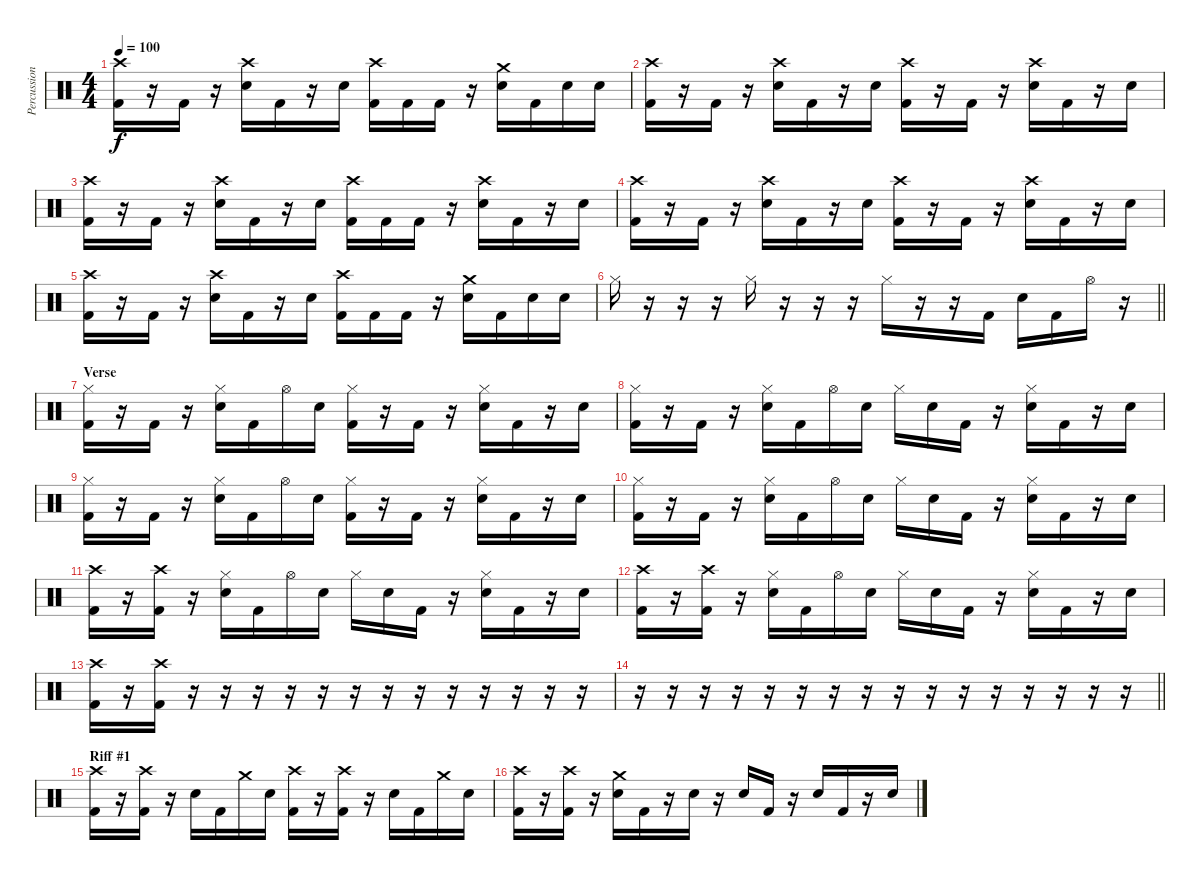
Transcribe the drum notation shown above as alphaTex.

\track ("Percussion" "Percussion") {instrument percussion}
\staff {score}
\articulation defaults
\ts (4 4)
\tempo 100
\clef neutral
\ks c
("Crash high (hit)" "Kick (hit) 2").16{dy f} r.16 "Kick (hit) 2".16 r.16 ("Crash high (hit)" "Electric Snare (hit)").16 "Kick (hit) 2".16 r.16 "Electric Snare (hit)".16 ("Crash high (hit)" "Kick (hit) 2").16 "Kick (hit) 2".16 "Kick (hit) 2".16 r.16 ("Crash medium (hit)" "Electric Snare (hit)").16 "Kick (hit) 2".16 "Electric Snare (hit)".16 "Electric Snare (hit)".16 |
("Crash high (hit)" "Kick (hit) 2").16 r.16 "Kick (hit) 2".16 r.16 ("Crash high (hit)" "Electric Snare (hit)").16 "Kick (hit) 2".16 r.16 "Electric Snare (hit)".16 ("Crash high (hit)" "Kick (hit) 2").16 r.16 "Kick (hit) 2".16 r.16 ("Crash high (hit)" "Electric Snare (hit)").16 "Kick (hit) 2".16 r.16 "Electric Snare (hit)".16 |
("Crash high (hit)" "Kick (hit) 2").16 r.16 "Kick (hit) 2".16 r.16 ("Crash high (hit)" "Electric Snare (hit)").16 "Kick (hit) 2".16 r.16 "Electric Snare (hit)".16 ("Crash high (hit)" "Kick (hit) 2").16 "Kick (hit) 2".16 "Kick (hit) 2".16 r.16 ("Crash high (hit)" "Electric Snare (hit)").16 "Kick (hit) 2".16 r.16 "Electric Snare (hit)".16 |
("Crash high (hit)" "Kick (hit) 2").16 r.16 "Kick (hit) 2".16 r.16 ("Crash high (hit)" "Electric Snare (hit)").16 "Kick (hit) 2".16 r.16 "Electric Snare (hit)".16 ("Crash high (hit)" "Kick (hit) 2").16 r.16 "Kick (hit) 2".16 r.16 ("Crash high (hit)" "Electric Snare (hit)").16 "Kick (hit) 2".16 r.16 "Electric Snare (hit)".16 |
("Crash high (hit)" "Kick (hit) 2").16 r.16 "Kick (hit) 2".16 r.16 ("Crash high (hit)" "Electric Snare (hit)").16 "Kick (hit) 2".16 r.16 "Electric Snare (hit)".16 ("Crash high (hit)" "Kick (hit) 2").16 "Kick (hit) 2".16 "Kick (hit) 2".16 r.16 ("Crash medium (hit)" "Electric Snare (hit)").16 "Kick (hit) 2".16 "Electric Snare (hit)".16 "Electric Snare (hit)".16 |
\barLineRight lightlight "Hi-Hat (closed)".16
r.16 r.16 r.16 "Hi-Hat (closed)".16 r.16 r.16 r.16 "Hi-Hat (closed)".16 r.16 r.16 "Kick (hit) 2".16 "Electric Snare (hit)".16 "Kick (hit) 2".16 "Hi-Hat (open)".16 r.16 |
\section ("" "Verse")
("Hi-Hat (closed)" "Kick (hit) 2").16 r.16 "Kick (hit) 2".16 r.16 ("Hi-Hat (closed)" "Electric Snare (hit)").16 "Kick (hit) 2".16 "Hi-Hat (open)".16 "Electric Snare (hit)".16 ("Hi-Hat (closed)" "Kick (hit) 2").16 r.16 "Kick (hit) 2".16 r.16 ("Hi-Hat (closed)" "Electric Snare (hit)").16 "Kick (hit) 2".16 r.16 "Electric Snare (hit)".16 |
("Hi-Hat (closed)" "Kick (hit) 2").16 r.16 "Kick (hit) 2".16 r.16 ("Hi-Hat (closed)" "Electric Snare (hit)").16 "Kick (hit) 2".16 "Hi-Hat (open)".16 "Electric Snare (hit)".16 "Hi-Hat (closed)".16 "Electric Snare (hit)".16 "Kick (hit) 2".16 r.16 ("Hi-Hat (closed)" "Electric Snare (hit)").16 "Kick (hit) 2".16 r.16 "Electric Snare (hit)".16 |
("Hi-Hat (closed)" "Kick (hit) 2").16 r.16 "Kick (hit) 2".16 r.16 ("Hi-Hat (closed)" "Electric Snare (hit)").16 "Kick (hit) 2".16 "Hi-Hat (open)".16 "Electric Snare (hit)".16 ("Hi-Hat (closed)" "Kick (hit) 2").16 r.16 "Kick (hit) 2".16 r.16 ("Hi-Hat (closed)" "Electric Snare (hit)").16 "Kick (hit) 2".16 r.16 "Electric Snare (hit)".16 |
("Hi-Hat (closed)" "Kick (hit) 2").16 r.16 "Kick (hit) 2".16 r.16 ("Hi-Hat (closed)" "Electric Snare (hit)").16 "Kick (hit) 2".16 "Hi-Hat (open)".16 "Electric Snare (hit)".16 "Hi-Hat (closed)".16 "Electric Snare (hit)".16 "Kick (hit) 2".16 r.16 ("Hi-Hat (closed)" "Electric Snare (hit)").16 "Kick (hit) 2".16 r.16 "Electric Snare (hit)".16 |
("Crash high (hit)" "Kick (hit) 2").16 r.16 ("Crash high (hit)" "Kick (hit) 2").16 r.16 ("Hi-Hat (closed)" "Electric Snare (hit)").16 "Kick (hit) 2".16 "Hi-Hat (open)".16 "Electric Snare (hit)".16 "Hi-Hat (closed)".16 "Electric Snare (hit)".16 "Kick (hit) 2".16 r.16 ("Hi-Hat (closed)" "Electric Snare (hit)").16 "Kick (hit) 2".16 r.16 "Electric Snare (hit)".16 |
("Crash high (hit)" "Kick (hit) 2").16 r.16 ("Crash high (hit)" "Kick (hit) 2").16 r.16 ("Hi-Hat (closed)" "Electric Snare (hit)").16 "Kick (hit) 2".16 "Hi-Hat (open)".16 "Electric Snare (hit)".16 "Hi-Hat (closed)".16 "Electric Snare (hit)".16 "Kick (hit) 2".16 r.16 ("Hi-Hat (closed)" "Electric Snare (hit)").16 "Kick (hit) 2".16 r.16 "Electric Snare (hit)".16 |
("Crash high (hit)" "Kick (hit) 2").16 r.16 ("Crash high (hit)" "Kick (hit) 2").16 r.16 r.16 r.16 r.16 r.16 r.16 r.16 r.16 r.16 r.16 r.16 r.16 r.16 |
\barLineRight lightlight
r.16 r.16 r.16 r.16 r.16 r.16 r.16 r.16 r.16 r.16 r.16 r.16 r.16 r.16 r.16 r.16 |
\section ("" "Riff #1")
("Crash high (hit)" "Kick (hit) 2").16 r.16 ("Crash high (hit)" "Kick (hit) 2").16 r.16 "Electric Snare (hit)".16 "Kick (hit) 2".16 "Crash medium (hit)".16 "Electric Snare (hit)".16 ("Crash high (hit)" "Kick (hit) 2").16 r.16 ("Crash high (hit)" "Kick (hit) 2").16 r.16 "Electric Snare (hit)".16 "Kick (hit) 2".16 "Crash medium (hit)".16 "Electric Snare (hit)".16 |
("Crash high (hit)" "Kick (hit) 2").16 r.16 ("Crash high (hit)" "Kick (hit) 2").16 r.16 ("Crash medium (hit)" "Electric Snare (hit)").16 "Kick (hit) 2".16 r.16 "Electric Snare (hit)".16 r.16 "Electric Snare (hit)".16 "Kick (hit) 2".16 r.16 "Electric Snare (hit)".16 "Kick (hit) 2".16 r.16 "Electric Snare (hit)".16
